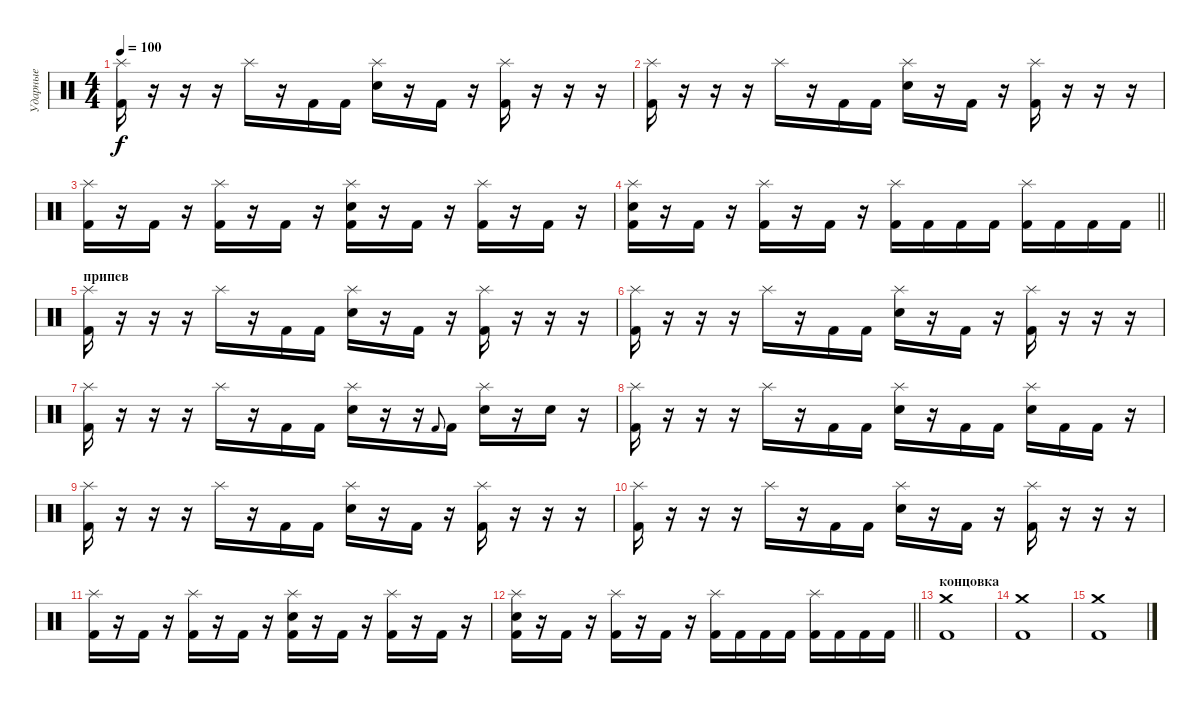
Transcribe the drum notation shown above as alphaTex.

\track ("Ударные" "Ударные") {instrument percussion}
\staff {score}
\articulation defaults
\ts (4 4)
\tempo 100
\clef neutral
\ks c
("Splash (hit)" "Kick (hit) 2").16{dy f} r.16 r.16 r.16 "Splash (hit)".16 r.16 "Kick (hit) 2".16 "Kick (hit) 2".16 ("Splash (hit)" "Electric Snare (hit)").16 r.16 "Kick (hit) 2".16 r.16 ("Splash (hit)" "Kick (hit) 2").16 r.16 r.16 r.16 |
("Splash (hit)" "Kick (hit) 2").16 r.16 r.16 r.16 "Splash (hit)".16 r.16 "Kick (hit) 2".16 "Kick (hit) 2".16 ("Splash (hit)" "Electric Snare (hit)").16 r.16 "Kick (hit) 2".16 r.16 ("Splash (hit)" "Kick (hit) 2").16 r.16 r.16 r.16 |
("Splash (hit)" "Kick (hit) 2").16 r.16 "Kick (hit) 2".16 r.16 ("Splash (hit)" "Kick (hit) 2").16 r.16 "Kick (hit) 2".16 r.16 ("Splash (hit)" "Electric Snare (hit)" "Kick (hit) 2").16 r.16 "Kick (hit) 2".16 r.16 ("Splash (hit)" "Kick (hit) 2").16 r.16 "Kick (hit) 2".16 r.16 |
\barLineRight lightlight
("Splash (hit)" "Electric Snare (hit)" "Kick (hit) 2").16 r.16 "Kick (hit) 2".16 r.16 ("Splash (hit)" "Kick (hit) 2").16 r.16 "Kick (hit) 2".16 r.16 ("Splash (hit)" "Kick (hit) 2").16 "Kick (hit) 2".16 "Kick (hit) 2".16 "Kick (hit) 2".16 ("Splash (hit)" "Kick (hit) 2").16 "Kick (hit) 2".16 "Kick (hit) 2".16 "Kick (hit) 2".16 |
\section ("" "припев")
("Splash (hit)" "Kick (hit) 2").16 r.16 r.16 r.16 "Splash (hit)".16 r.16 "Kick (hit) 2".16 "Kick (hit) 2".16 ("Splash (hit)" "Electric Snare (hit)").16 r.16 "Kick (hit) 2".16 r.16 ("Splash (hit)" "Kick (hit) 2").16 r.16 r.16 r.16 |
("Splash (hit)" "Kick (hit) 2").16 r.16 r.16 r.16 "Splash (hit)".16 r.16 "Kick (hit) 2".16 "Kick (hit) 2".16 ("Splash (hit)" "Electric Snare (hit)").16 r.16 "Kick (hit) 2".16 r.16 ("Splash (hit)" "Kick (hit) 2").16 r.16 r.16 r.16 |
("Splash (hit)" "Kick (hit) 2").16 r.16 r.16 r.16 "Splash (hit)".16 r.16 "Kick (hit) 2".16 "Kick (hit) 2".16 ("Splash (hit)" "Electric Snare (hit)").16 r.16 r.16 "Kick (hit) 2".8{gr onbeat} "Kick (hit) 2".16 ("Splash (hit)" "Electric Snare (hit)").16 r.16 "Electric Snare (hit)".16 r.16 |
("Splash (hit)" "Kick (hit) 2").16 r.16 r.16 r.16 "Splash (hit)".16 r.16 "Kick (hit) 2".16 "Kick (hit) 2".16 ("Splash (hit)" "Electric Snare (hit)").16 r.16 "Kick (hit) 2".16 "Kick (hit) 2".16 ("Splash (hit)" "Electric Snare (hit)").16 "Kick (hit) 2".16 "Kick (hit) 2".16 r.16 |
("Splash (hit)" "Kick (hit) 2").16 r.16 r.16 r.16 "Splash (hit)".16 r.16 "Kick (hit) 2".16 "Kick (hit) 2".16 ("Splash (hit)" "Electric Snare (hit)").16 r.16 "Kick (hit) 2".16 r.16 ("Splash (hit)" "Kick (hit) 2").16 r.16 r.16 r.16 |
("Splash (hit)" "Kick (hit) 2").16 r.16 r.16 r.16 "Splash (hit)".16 r.16 "Kick (hit) 2".16 "Kick (hit) 2".16 ("Splash (hit)" "Electric Snare (hit)").16 r.16 "Kick (hit) 2".16 r.16 ("Splash (hit)" "Kick (hit) 2").16 r.16 r.16 r.16 |
("Splash (hit)" "Kick (hit) 2").16 r.16 "Kick (hit) 2".16 r.16 ("Splash (hit)" "Kick (hit) 2").16 r.16 "Kick (hit) 2".16 r.16 ("Splash (hit)" "Electric Snare (hit)" "Kick (hit) 2").16 r.16 "Kick (hit) 2".16 r.16 ("Splash (hit)" "Kick (hit) 2").16 r.16 "Kick (hit) 2".16 r.16 |
\barLineRight lightlight
("Splash (hit)" "Electric Snare (hit)" "Kick (hit) 2").16 r.16 "Kick (hit) 2".16 r.16 ("Splash (hit)" "Kick (hit) 2").16 r.16 "Kick (hit) 2".16 r.16 ("Splash (hit)" "Kick (hit) 2").16 "Kick (hit) 2".16 "Kick (hit) 2".16 "Kick (hit) 2".16 ("Splash (hit)" "Kick (hit) 2").16 "Kick (hit) 2".16 "Kick (hit) 2".16 "Kick (hit) 2".16 |
\section ("" "концовка")
("Crash medium (hit)" "Kick (hit) 2").1 |
("Crash medium (hit)" "Kick (hit) 2").1 |
("Crash medium (hit)" "Kick (hit) 2").1
